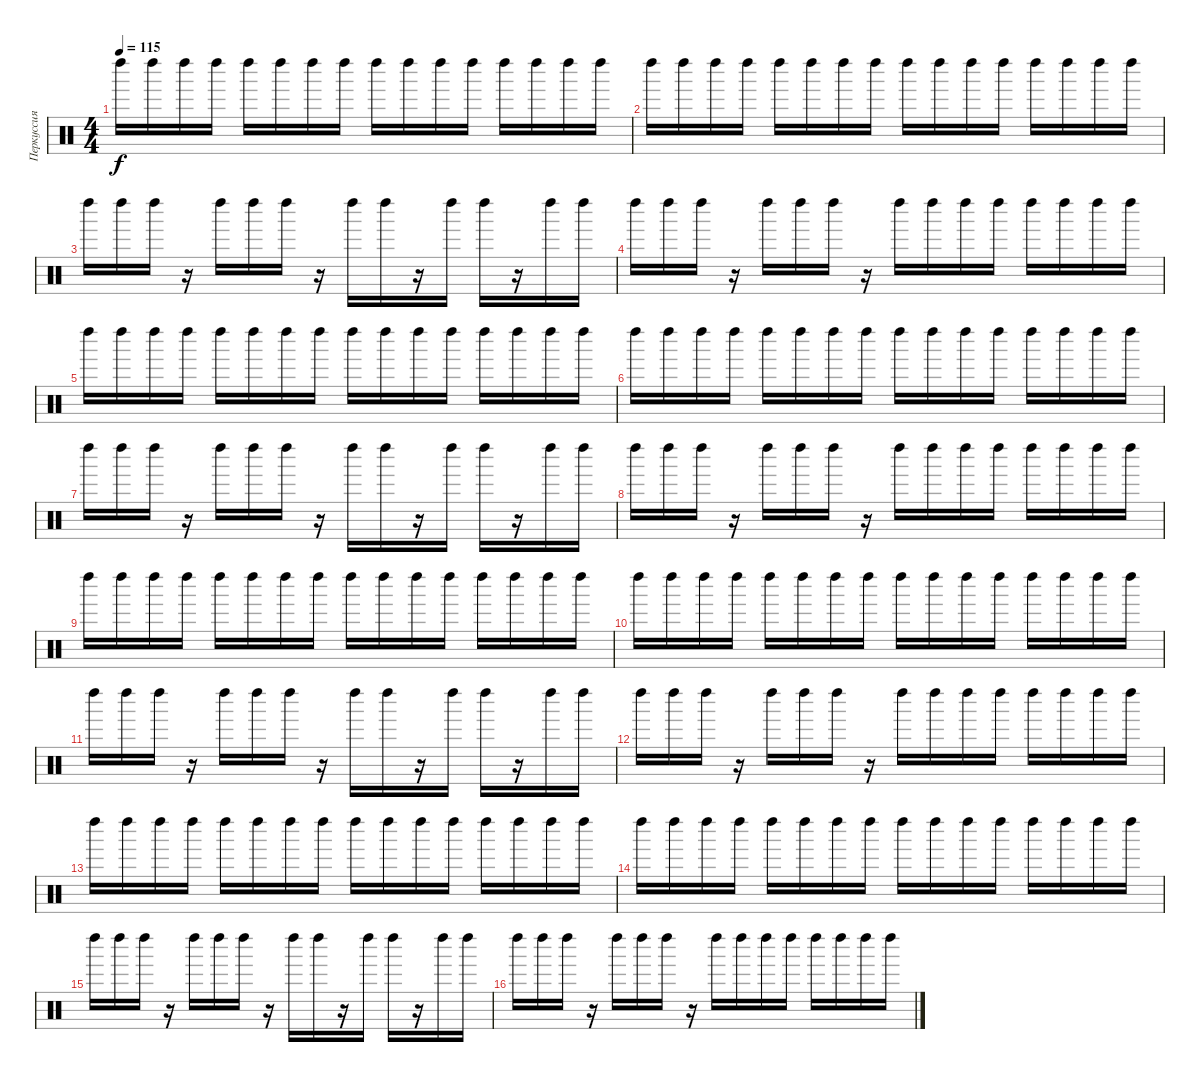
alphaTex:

\track ("Перкуссия" "Перкуссия") {instrument percussion}
\staff {score}
\articulation defaults
\ts (4 4)
\tempo 115
\clef neutral
\ks c "Left Maraca (hit)".16{dy f} "Left Maraca (hit)".16 "Left Maraca (hit)".16 "Left Maraca (hit)".16 "Left Maraca (hit)".16 "Left Maraca (hit)".16 "Left Maraca (hit)".16 "Left Maraca (hit)".16 "Left Maraca (hit)".16 "Left Maraca (hit)".16 "Left Maraca (hit)".16 "Left Maraca (hit)".16 "Left Maraca (hit)".16 "Left Maraca (hit)".16 "Left Maraca (hit)".16 "Left Maraca (hit)".16
|
"Left Maraca (hit)".16 "Left Maraca (hit)".16 "Left Maraca (hit)".16 "Left Maraca (hit)".16 "Left Maraca (hit)".16 "Left Maraca (hit)".16 "Left Maraca (hit)".16 "Left Maraca (hit)".16 "Left Maraca (hit)".16 "Left Maraca (hit)".16 "Left Maraca (hit)".16 "Left Maraca (hit)".16 "Left Maraca (hit)".16 "Left Maraca (hit)".16 "Left Maraca (hit)".16 "Left Maraca (hit)".16 |
"Left Maraca (hit)".16 "Left Maraca (hit)".16 "Left Maraca (hit)".16 r.16 "Left Maraca (hit)".16 "Left Maraca (hit)".16 "Left Maraca (hit)".16 r.16 "Left Maraca (hit)".16 "Left Maraca (hit)".16 r.16 "Left Maraca (hit)".16 "Left Maraca (hit)".16 r.16 "Left Maraca (hit)".16 "Left Maraca (hit)".16 |
"Left Maraca (hit)".16 "Left Maraca (hit)".16 "Left Maraca (hit)".16 r.16 "Left Maraca (hit)".16 "Left Maraca (hit)".16 "Left Maraca (hit)".16 r.16 "Left Maraca (hit)".16 "Left Maraca (hit)".16 "Left Maraca (hit)".16 "Left Maraca (hit)".16 "Left Maraca (hit)".16 "Left Maraca (hit)".16 "Left Maraca (hit)".16 "Left Maraca (hit)".16 |
"Left Maraca (hit)".16 "Left Maraca (hit)".16 "Left Maraca (hit)".16 "Left Maraca (hit)".16 "Left Maraca (hit)".16 "Left Maraca (hit)".16 "Left Maraca (hit)".16 "Left Maraca (hit)".16 "Left Maraca (hit)".16 "Left Maraca (hit)".16 "Left Maraca (hit)".16 "Left Maraca (hit)".16 "Left Maraca (hit)".16 "Left Maraca (hit)".16 "Left Maraca (hit)".16 "Left Maraca (hit)".16 |
"Left Maraca (hit)".16 "Left Maraca (hit)".16 "Left Maraca (hit)".16 "Left Maraca (hit)".16 "Left Maraca (hit)".16 "Left Maraca (hit)".16 "Left Maraca (hit)".16 "Left Maraca (hit)".16 "Left Maraca (hit)".16 "Left Maraca (hit)".16 "Left Maraca (hit)".16 "Left Maraca (hit)".16 "Left Maraca (hit)".16 "Left Maraca (hit)".16 "Left Maraca (hit)".16 "Left Maraca (hit)".16 |
"Left Maraca (hit)".16 "Left Maraca (hit)".16 "Left Maraca (hit)".16 r.16 "Left Maraca (hit)".16 "Left Maraca (hit)".16 "Left Maraca (hit)".16 r.16 "Left Maraca (hit)".16 "Left Maraca (hit)".16 r.16 "Left Maraca (hit)".16 "Left Maraca (hit)".16 r.16 "Left Maraca (hit)".16 "Left Maraca (hit)".16 |
"Left Maraca (hit)".16 "Left Maraca (hit)".16 "Left Maraca (hit)".16 r.16 "Left Maraca (hit)".16 "Left Maraca (hit)".16 "Left Maraca (hit)".16 r.16 "Left Maraca (hit)".16 "Left Maraca (hit)".16 "Left Maraca (hit)".16 "Left Maraca (hit)".16 "Left Maraca (hit)".16 "Left Maraca (hit)".16 "Left Maraca (hit)".16 "Left Maraca (hit)".16 |
"Left Maraca (hit)".16 "Left Maraca (hit)".16 "Left Maraca (hit)".16 "Left Maraca (hit)".16 "Left Maraca (hit)".16 "Left Maraca (hit)".16 "Left Maraca (hit)".16 "Left Maraca (hit)".16 "Left Maraca (hit)".16 "Left Maraca (hit)".16 "Left Maraca (hit)".16 "Left Maraca (hit)".16 "Left Maraca (hit)".16 "Left Maraca (hit)".16 "Left Maraca (hit)".16 "Left Maraca (hit)".16 |
"Left Maraca (hit)".16 "Left Maraca (hit)".16 "Left Maraca (hit)".16 "Left Maraca (hit)".16 "Left Maraca (hit)".16 "Left Maraca (hit)".16 "Left Maraca (hit)".16 "Left Maraca (hit)".16 "Left Maraca (hit)".16 "Left Maraca (hit)".16 "Left Maraca (hit)".16 "Left Maraca (hit)".16 "Left Maraca (hit)".16 "Left Maraca (hit)".16 "Left Maraca (hit)".16 "Left Maraca (hit)".16 |
"Left Maraca (hit)".16 "Left Maraca (hit)".16 "Left Maraca (hit)".16 r.16 "Left Maraca (hit)".16 "Left Maraca (hit)".16 "Left Maraca (hit)".16 r.16 "Left Maraca (hit)".16 "Left Maraca (hit)".16 r.16 "Left Maraca (hit)".16 "Left Maraca (hit)".16 r.16 "Left Maraca (hit)".16 "Left Maraca (hit)".16 |
"Left Maraca (hit)".16 "Left Maraca (hit)".16 "Left Maraca (hit)".16 r.16 "Left Maraca (hit)".16 "Left Maraca (hit)".16 "Left Maraca (hit)".16 r.16 "Left Maraca (hit)".16 "Left Maraca (hit)".16 "Left Maraca (hit)".16 "Left Maraca (hit)".16 "Left Maraca (hit)".16 "Left Maraca (hit)".16 "Left Maraca (hit)".16 "Left Maraca (hit)".16 |
"Left Maraca (hit)".16 "Left Maraca (hit)".16 "Left Maraca (hit)".16 "Left Maraca (hit)".16 "Left Maraca (hit)".16 "Left Maraca (hit)".16 "Left Maraca (hit)".16 "Left Maraca (hit)".16 "Left Maraca (hit)".16 "Left Maraca (hit)".16 "Left Maraca (hit)".16 "Left Maraca (hit)".16 "Left Maraca (hit)".16 "Left Maraca (hit)".16 "Left Maraca (hit)".16 "Left Maraca (hit)".16 |
"Left Maraca (hit)".16 "Left Maraca (hit)".16 "Left Maraca (hit)".16 "Left Maraca (hit)".16 "Left Maraca (hit)".16 "Left Maraca (hit)".16 "Left Maraca (hit)".16 "Left Maraca (hit)".16 "Left Maraca (hit)".16 "Left Maraca (hit)".16 "Left Maraca (hit)".16 "Left Maraca (hit)".16 "Left Maraca (hit)".16 "Left Maraca (hit)".16 "Left Maraca (hit)".16 "Left Maraca (hit)".16 |
"Left Maraca (hit)".16 "Left Maraca (hit)".16 "Left Maraca (hit)".16 r.16 "Left Maraca (hit)".16 "Left Maraca (hit)".16 "Left Maraca (hit)".16 r.16 "Left Maraca (hit)".16 "Left Maraca (hit)".16 r.16 "Left Maraca (hit)".16 "Left Maraca (hit)".16 r.16 "Left Maraca (hit)".16 "Left Maraca (hit)".16 |
"Left Maraca (hit)".16 "Left Maraca (hit)".16 "Left Maraca (hit)".16 r.16 "Left Maraca (hit)".16 "Left Maraca (hit)".16 "Left Maraca (hit)".16 r.16 "Left Maraca (hit)".16 "Left Maraca (hit)".16 "Left Maraca (hit)".16 "Left Maraca (hit)".16 "Left Maraca (hit)".16 "Left Maraca (hit)".16 "Left Maraca (hit)".16 "Left Maraca (hit)".16
